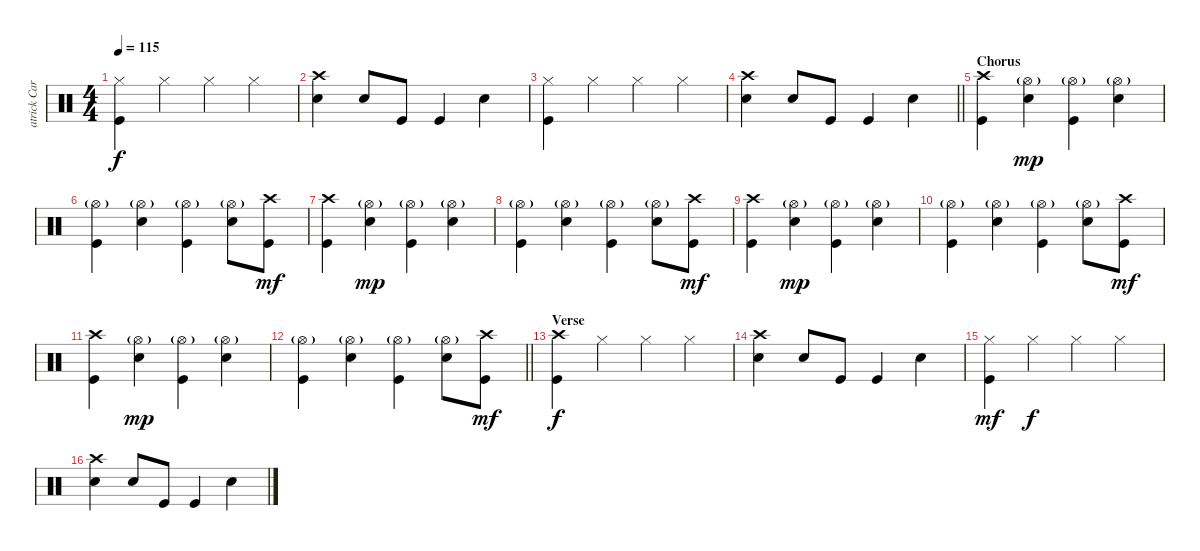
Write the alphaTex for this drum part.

\track ("atrick Carney - Percussion" "atrick Car") {instrument percussion}
\staff {score}
\articulation defaults
\ts (4 4)
\tempo 115
\clef neutral
\ks c
("Hi-Hat (closed)" "Kick (hit)").4{dy f} "Hi-Hat (closed)".4 "Hi-Hat (closed)".4 "Hi-Hat (closed)".4 |
("Crash high (hit)" "Electric Snare (hit)").4 "Electric Snare (hit)".8 "Kick (hit)".8 "Kick (hit)".4 "Electric Snare (hit)".4 |
("Hi-Hat (closed)" "Kick (hit)").4 "Hi-Hat (closed)".4 "Hi-Hat (closed)".4 "Hi-Hat (closed)".4 |
\barLineRight lightlight
("Crash high (hit)" "Electric Snare (hit)").4 "Electric Snare (hit)".8 "Kick (hit)".8 "Kick (hit)".4 "Electric Snare (hit)".4 |
\section ("" "Chorus")
("Crash high (hit)" "Kick (hit)").4 ("Hi-Hat (open)"{g} "Electric Snare (hit)").4{dy mp} ("Hi-Hat (open)"{g} "Kick (hit)").4 ("Hi-Hat (open)"{g} "Electric Snare (hit)").4 |
("Hi-Hat (open)"{g} "Kick (hit)").4 ("Hi-Hat (open)"{g} "Electric Snare (hit)").4 ("Hi-Hat (open)"{g} "Kick (hit)").4 ("Hi-Hat (open)"{g} "Electric Snare (hit)").8 ("Crash high (hit)" "Kick (hit)").8{dy mf} |
("Crash high (hit)" "Kick (hit)").4 ("Hi-Hat (open)"{g} "Electric Snare (hit)").4{dy mp} ("Hi-Hat (open)"{g} "Kick (hit)").4 ("Hi-Hat (open)"{g} "Electric Snare (hit)").4 |
("Hi-Hat (open)"{g} "Kick (hit)").4 ("Hi-Hat (open)"{g} "Electric Snare (hit)").4 ("Hi-Hat (open)"{g} "Kick (hit)").4 ("Hi-Hat (open)"{g} "Electric Snare (hit)").8 ("Crash high (hit)" "Kick (hit)").8{dy mf} |
("Crash high (hit)" "Kick (hit)").4 ("Hi-Hat (open)"{g} "Electric Snare (hit)").4{dy mp} ("Hi-Hat (open)"{g} "Kick (hit)").4 ("Hi-Hat (open)"{g} "Electric Snare (hit)").4 |
("Hi-Hat (open)"{g} "Kick (hit)").4 ("Hi-Hat (open)"{g} "Electric Snare (hit)").4 ("Hi-Hat (open)"{g} "Kick (hit)").4 ("Hi-Hat (open)"{g} "Electric Snare (hit)").8 ("Crash high (hit)" "Kick (hit)").8{dy mf} |
("Crash high (hit)" "Kick (hit)").4 ("Hi-Hat (open)"{g} "Electric Snare (hit)").4{dy mp} ("Hi-Hat (open)"{g} "Kick (hit)").4 ("Hi-Hat (open)"{g} "Electric Snare (hit)").4 |
\barLineRight lightlight
("Hi-Hat (open)"{g} "Kick (hit)").4 ("Hi-Hat (open)"{g} "Electric Snare (hit)").4 ("Hi-Hat (open)"{g} "Kick (hit)").4 ("Hi-Hat (open)"{g} "Electric Snare (hit)").8 ("Crash high (hit)" "Kick (hit)").8{dy mf} |
\section ("" "Verse")
("Crash high (hit)" "Kick (hit)").4{dy f} "Hi-Hat (closed)".4 "Hi-Hat (closed)".4 "Hi-Hat (closed)".4 |
("Crash high (hit)" "Electric Snare (hit)").4 "Electric Snare (hit)".8 "Kick (hit)".8 "Kick (hit)".4 "Electric Snare (hit)".4 |
("Hi-Hat (closed)" "Kick (hit)").4{dy mf} "Hi-Hat (closed)".4{dy f} "Hi-Hat (closed)".4 "Hi-Hat (closed)".4 |
("Crash high (hit)" "Electric Snare (hit)").4 "Electric Snare (hit)".8 "Kick (hit)".8 "Kick (hit)".4 "Electric Snare (hit)".4
